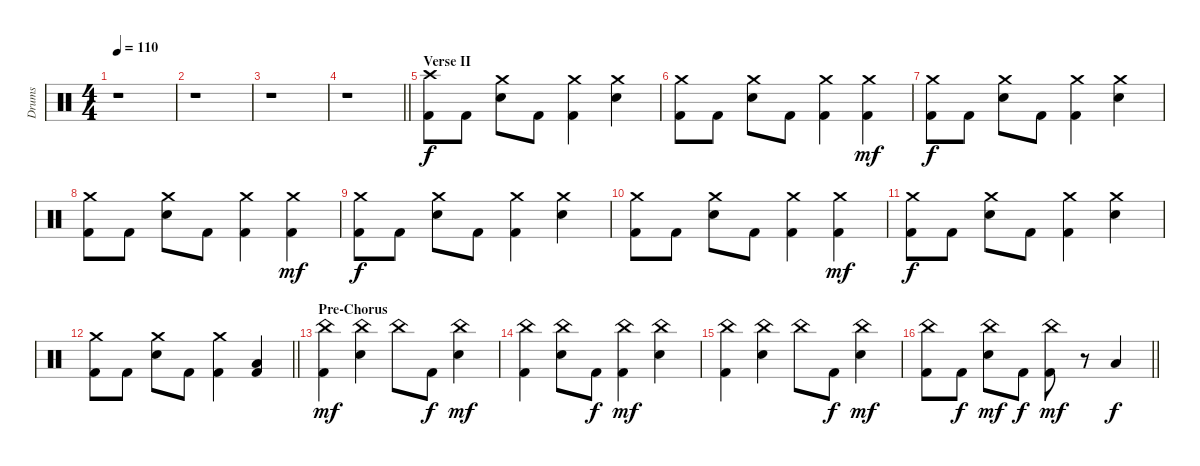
\track ("Drums" "Drums") {instrument percussion}
\staff {score}
\articulation defaults
\ts (4 4)
\tempo 110
\clef neutral
\ks c
r.1{dy f} |
r.1 |
r.1 |
\barLineRight lightlight
r.1 |
\section ("" "Verse II")
("Crash high (hit)" "Kick (hit) 2").8 "Kick (hit) 2".8 ("Crash medium (hit)" "Snare (hit) 2").8 "Kick (hit) 2".8 ("Crash medium (hit)" "Kick (hit) 2").4 ("Crash medium (hit)" "Snare (hit) 2").4 |
("Crash medium (hit)" "Kick (hit) 2").8 "Kick (hit) 2".8 ("Crash medium (hit)" "Snare (hit) 2").8 "Kick (hit) 2".8 ("Crash medium (hit)" "Kick (hit) 2").4 ("Crash medium (hit)" "Kick (hit) 2").4{dy mf} |
("Crash medium (hit)" "Kick (hit) 2").8{dy f} "Kick (hit) 2".8 ("Crash medium (hit)" "Snare (hit) 2").8 "Kick (hit) 2".8 ("Crash medium (hit)" "Kick (hit) 2").4 ("Crash medium (hit)" "Snare (hit) 2").4 |
("Crash medium (hit)" "Kick (hit) 2").8 "Kick (hit) 2".8 ("Crash medium (hit)" "Snare (hit) 2").8 "Kick (hit) 2".8 ("Crash medium (hit)" "Kick (hit) 2").4 ("Crash medium (hit)" "Kick (hit) 2").4{dy mf} |
("Crash medium (hit)" "Kick (hit) 2").8{dy f} "Kick (hit) 2".8 ("Crash medium (hit)" "Snare (hit) 2").8 "Kick (hit) 2".8 ("Crash medium (hit)" "Kick (hit) 2").4 ("Crash medium (hit)" "Snare (hit) 2").4 |
("Crash medium (hit)" "Kick (hit) 2").8 "Kick (hit) 2".8 ("Crash medium (hit)" "Snare (hit) 2").8 "Kick (hit) 2".8 ("Crash medium (hit)" "Kick (hit) 2").4 ("Crash medium (hit)" "Kick (hit) 2").4{dy mf} |
("Crash medium (hit)" "Kick (hit) 2").8{dy f} "Kick (hit) 2".8 ("Crash medium (hit)" "Snare (hit) 2").8 "Kick (hit) 2".8 ("Crash medium (hit)" "Kick (hit) 2").4 ("Crash medium (hit)" "Snare (hit) 2").4 |
\barLineRight lightlight
("Crash medium (hit)" "Kick (hit) 2").8 "Kick (hit) 2".8 ("Crash medium (hit)" "Snare (hit) 2").8 "Kick (hit) 2".8 ("Crash medium (hit)" "Kick (hit) 2").4 ("Low Tom (hit)" "Kick (hit) 2").4 |
\section ("" "Pre-Chorus")
("China (hit)" "Kick (hit) 2").4{dy mf} ("China (hit)" "Snare (hit) 2").4 "China (hit)".8 "Kick (hit) 2".8{dy f} ("China (hit)" "Snare (hit) 2").4{dy mf} |
("China (hit)" "Kick (hit) 2").4 ("China (hit)" "Snare (hit) 2").8 "Kick (hit) 2".8{dy f} ("China (hit)" "Kick (hit) 2").4{dy mf} ("China (hit)" "Snare (hit) 2").4 |
("China (hit)" "Kick (hit) 2").4 ("China (hit)" "Snare (hit) 2").4 "China (hit)".8 "Kick (hit) 2".8{dy f} ("China (hit)" "Snare (hit) 2").4{dy mf} |
\barLineRight lightlight
("China (hit)" "Kick (hit) 2").8 "Kick (hit) 2".8{dy f} ("China (hit)" "Snare (hit) 2").8{dy mf} "Kick (hit) 2".8{dy f} ("China (hit)" "Kick (hit) 2").8{dy mf} r.8 "Low Tom (hit)".4{dy f}
